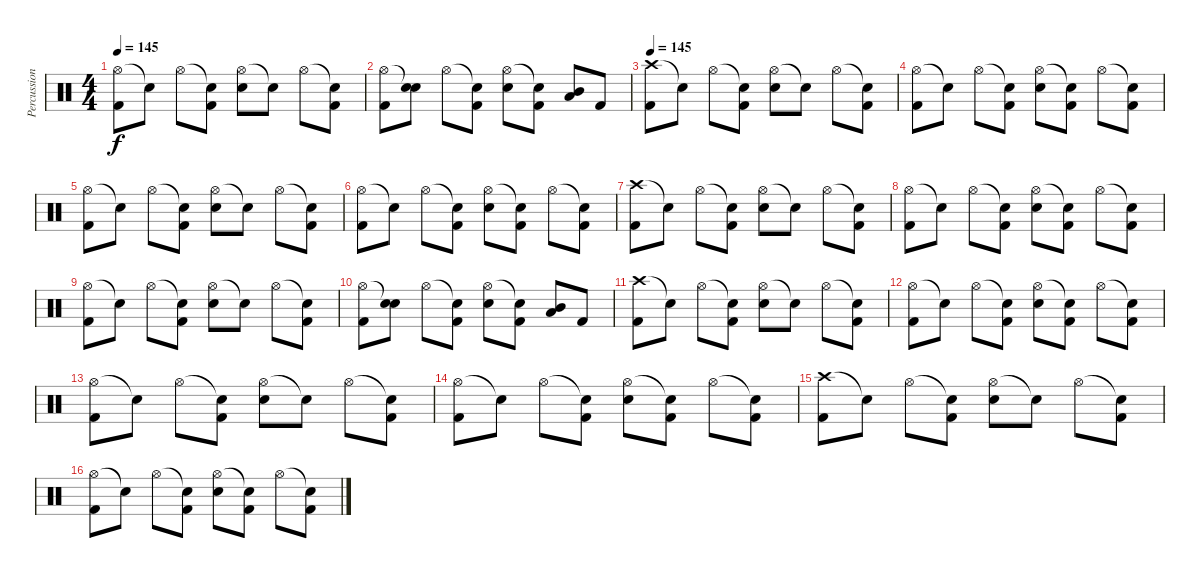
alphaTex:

\track ("Percussion" "Percussion") {instrument percussion}
\staff {score}
\articulation defaults
\ts (4 4)
\tempo 145
\clef neutral
\ks c
("Hi-Hat (open)" "Kick (hit) 2").8{dy f} "Snare (hit)"{t}.8 "Hi-Hat (open)".8 ("Snare (hit)"{t} "Kick (hit) 2").8 ("Hi-Hat (open)" "Electric Snare (hit)").8 "Snare (hit)"{t}.8 "Hi-Hat (open)".8 ("Snare (hit)"{t} "Kick (hit) 2").8 |
("Hi-Hat (open)" "Kick (hit) 2").8 ("Snare (hit)"{t} "Electric Snare (hit)").8 "Hi-Hat (open)".8 ("Snare (hit)"{t} "Kick (hit) 2").8 ("Hi-Hat (open)" "Electric Snare (hit)").8 ("Snare (hit)"{t} "Kick (hit) 2").8 ("Mid Tom (hit)" "Low Tom (hit)").8 "Kick (hit) 2".8 |
\tempo 145
("Crash high (hit)" "Kick (hit) 2").8 "Snare (hit)"{t}.8 "Hi-Hat (open)".8 ("Snare (hit)"{t} "Kick (hit) 2").8 ("Hi-Hat (open)" "Electric Snare (hit)").8 "Snare (hit)"{t}.8 "Hi-Hat (open)".8 ("Snare (hit)"{t} "Kick (hit) 2").8 |
("Hi-Hat (open)" "Kick (hit) 2").8 "Snare (hit)"{t}.8 "Hi-Hat (open)".8 ("Snare (hit)"{t} "Kick (hit) 2").8 ("Hi-Hat (open)" "Electric Snare (hit)").8 ("Snare (hit)"{t} "Kick (hit) 2").8 "Hi-Hat (open)".8 ("Snare (hit)"{t} "Kick (hit) 2").8 |
("Hi-Hat (open)" "Kick (hit) 2").8 "Snare (hit)"{t}.8 "Hi-Hat (open)".8 ("Snare (hit)"{t} "Kick (hit) 2").8 ("Hi-Hat (open)" "Electric Snare (hit)").8 "Snare (hit)"{t}.8 "Hi-Hat (open)".8 ("Snare (hit)"{t} "Kick (hit) 2").8 |
("Hi-Hat (open)" "Kick (hit) 2").8 "Snare (hit)"{t}.8 "Hi-Hat (open)".8 ("Snare (hit)"{t} "Kick (hit) 2").8 ("Hi-Hat (open)" "Electric Snare (hit)").8 ("Snare (hit)"{t} "Kick (hit) 2").8 "Hi-Hat (open)".8 ("Snare (hit)"{t} "Kick (hit) 2").8 |
("Crash high (hit)" "Kick (hit) 2").8 "Snare (hit)"{t}.8 "Hi-Hat (open)".8 ("Snare (hit)"{t} "Kick (hit) 2").8 ("Hi-Hat (open)" "Electric Snare (hit)").8 "Snare (hit)"{t}.8 "Hi-Hat (open)".8 ("Snare (hit)"{t} "Kick (hit) 2").8 |
("Hi-Hat (open)" "Kick (hit) 2").8 "Snare (hit)"{t}.8 "Hi-Hat (open)".8 ("Snare (hit)"{t} "Kick (hit) 2").8 ("Hi-Hat (open)" "Electric Snare (hit)").8 ("Snare (hit)"{t} "Kick (hit) 2").8 "Hi-Hat (open)".8 ("Snare (hit)"{t} "Kick (hit) 2").8 |
("Hi-Hat (open)" "Kick (hit) 2").8 "Snare (hit)"{t}.8 "Hi-Hat (open)".8 ("Snare (hit)"{t} "Kick (hit) 2").8 ("Hi-Hat (open)" "Electric Snare (hit)").8 "Snare (hit)"{t}.8 "Hi-Hat (open)".8 ("Snare (hit)"{t} "Kick (hit) 2").8 |
("Hi-Hat (open)" "Kick (hit) 2").8 ("Snare (hit)"{t} "Electric Snare (hit)").8 "Hi-Hat (open)".8 ("Snare (hit)"{t} "Kick (hit) 2").8 ("Hi-Hat (open)" "Electric Snare (hit)").8 ("Snare (hit)"{t} "Kick (hit) 2").8 ("Mid Tom (hit)" "Low Tom (hit)").8 "Kick (hit) 2".8 |
("Crash high (hit)" "Kick (hit) 2").8 "Snare (hit)"{t}.8 "Hi-Hat (open)".8 ("Snare (hit)"{t} "Kick (hit) 2").8 ("Hi-Hat (open)" "Electric Snare (hit)").8 "Snare (hit)"{t}.8 "Hi-Hat (open)".8 ("Snare (hit)"{t} "Kick (hit) 2").8 |
("Hi-Hat (open)" "Kick (hit) 2").8 "Snare (hit)"{t}.8 "Hi-Hat (open)".8 ("Snare (hit)"{t} "Kick (hit) 2").8 ("Hi-Hat (open)" "Electric Snare (hit)").8 ("Snare (hit)"{t} "Kick (hit) 2").8 "Hi-Hat (open)".8 ("Snare (hit)"{t} "Kick (hit) 2").8 |
("Hi-Hat (open)" "Kick (hit) 2").8 "Snare (hit)"{t}.8 "Hi-Hat (open)".8 ("Snare (hit)"{t} "Kick (hit) 2").8 ("Hi-Hat (open)" "Electric Snare (hit)").8 "Snare (hit)"{t}.8 "Hi-Hat (open)".8 ("Snare (hit)"{t} "Kick (hit) 2").8 |
("Hi-Hat (open)" "Kick (hit) 2").8 "Snare (hit)"{t}.8 "Hi-Hat (open)".8 ("Snare (hit)"{t} "Kick (hit) 2").8 ("Hi-Hat (open)" "Electric Snare (hit)").8 ("Snare (hit)"{t} "Kick (hit) 2").8 "Hi-Hat (open)".8 ("Snare (hit)"{t} "Kick (hit) 2").8 |
("Crash high (hit)" "Kick (hit) 2").8 "Snare (hit)"{t}.8 "Hi-Hat (open)".8 ("Snare (hit)"{t} "Kick (hit) 2").8 ("Hi-Hat (open)" "Electric Snare (hit)").8 "Snare (hit)"{t}.8 "Hi-Hat (open)".8 ("Snare (hit)"{t} "Kick (hit) 2").8 |
("Hi-Hat (open)" "Kick (hit) 2").8 "Snare (hit)"{t}.8 "Hi-Hat (open)".8 ("Snare (hit)"{t} "Kick (hit) 2").8 ("Hi-Hat (open)" "Electric Snare (hit)").8 ("Snare (hit)"{t} "Kick (hit) 2").8 "Hi-Hat (open)".8 ("Snare (hit)"{t} "Kick (hit) 2").8
